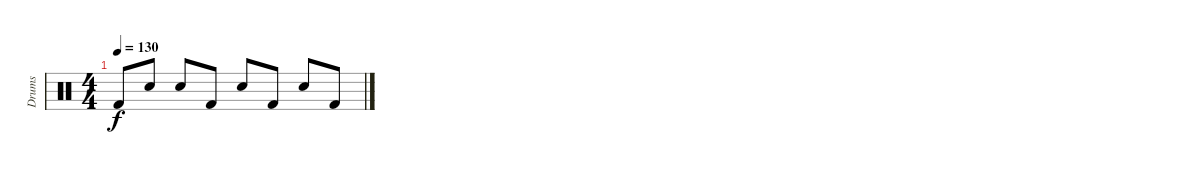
\track ("Drums" "Drums") {instrument percussion}
\staff {score}
\articulation defaults
\ts (4 4)
\tempo 130
\clef neutral
\ks c "Kick (hit) 2".8{dy f} "Snare (hit) 2".8 "Snare (hit) 2".8 "Kick (hit) 2".8 "Snare (hit) 2".8 "Kick (hit) 2".8 "Snare (hit) 2".8 "Kick (hit) 2".8
